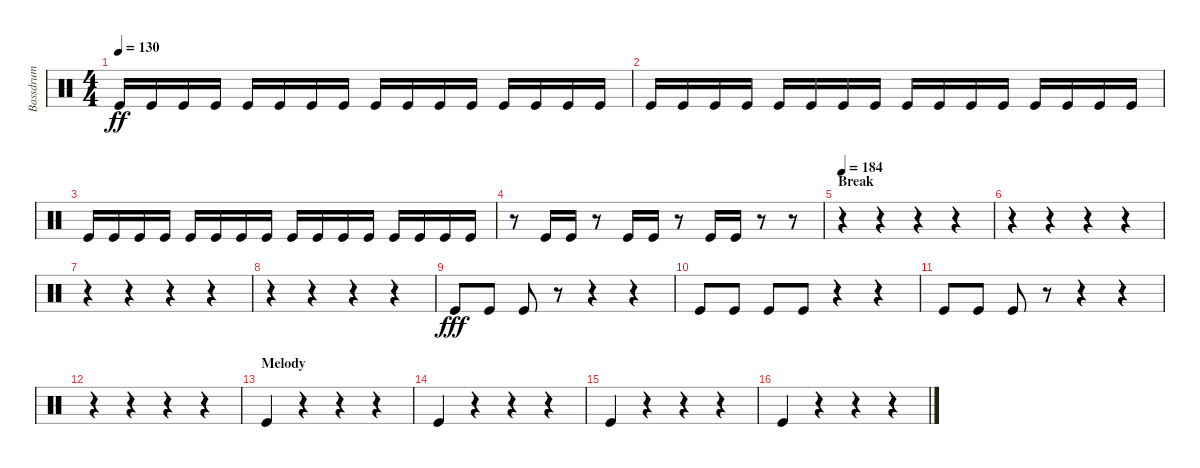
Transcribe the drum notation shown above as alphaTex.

\track ("Bassdrum" "Bassdrum") {instrument percussion}
\staff {score}
\articulation defaults
\ts (4 4)
\tempo 130
\clef neutral
\ks c "Kick (hit)".16{dy ff} "Kick (hit)".16 "Kick (hit)".16 "Kick (hit)".16 "Kick (hit)".16 "Kick (hit)".16 "Kick (hit)".16 "Kick (hit)".16 "Kick (hit)".16 "Kick (hit)".16 "Kick (hit)".16 "Kick (hit)".16 "Kick (hit)".16 "Kick (hit)".16 "Kick (hit)".16 "Kick (hit)".16
|
"Kick (hit)".16 "Kick (hit)".16 "Kick (hit)".16 "Kick (hit)".16 "Kick (hit)".16 "Kick (hit)".16 "Kick (hit)".16 "Kick (hit)".16 "Kick (hit)".16 "Kick (hit)".16 "Kick (hit)".16 "Kick (hit)".16 "Kick (hit)".16 "Kick (hit)".16 "Kick (hit)".16 "Kick (hit)".16 |
"Kick (hit)".16 "Kick (hit)".16 "Kick (hit)".16 "Kick (hit)".16 "Kick (hit)".16 "Kick (hit)".16 "Kick (hit)".16 "Kick (hit)".16 "Kick (hit)".16 "Kick (hit)".16 "Kick (hit)".16 "Kick (hit)".16 "Kick (hit)".16 "Kick (hit)".16 "Kick (hit)".16 "Kick (hit)".16 |
r.8 "Kick (hit)".16 "Kick (hit)".16 r.8 "Kick (hit)".16 "Kick (hit)".16 r.8 "Kick (hit)".16 "Kick (hit)".16 r.8 r.8 |
\section ("" "Break")
\tempo 184
r.4 r.4 r.4 r.4 |
r.4 r.4 r.4 r.4 |
r.4 r.4 r.4 r.4 |
r.4 r.4 r.4 r.4 |
"Kick (hit)".8{dy fff} "Kick (hit)".8 "Kick (hit)".8 r.8 r.4 r.4 |
"Kick (hit)".8 "Kick (hit)".8 "Kick (hit)".8 "Kick (hit)".8 r.4 r.4 |
"Kick (hit)".8 "Kick (hit)".8 "Kick (hit)".8 r.8 r.4 r.4 |
r.4 r.4 r.4 r.4 |
\section ("" "Melody")
"Kick (hit)".4 r.4 r.4 r.4 |
"Kick (hit)".4 r.4 r.4 r.4 |
"Kick (hit)".4 r.4 r.4 r.4 |
"Kick (hit)".4 r.4 r.4 r.4
